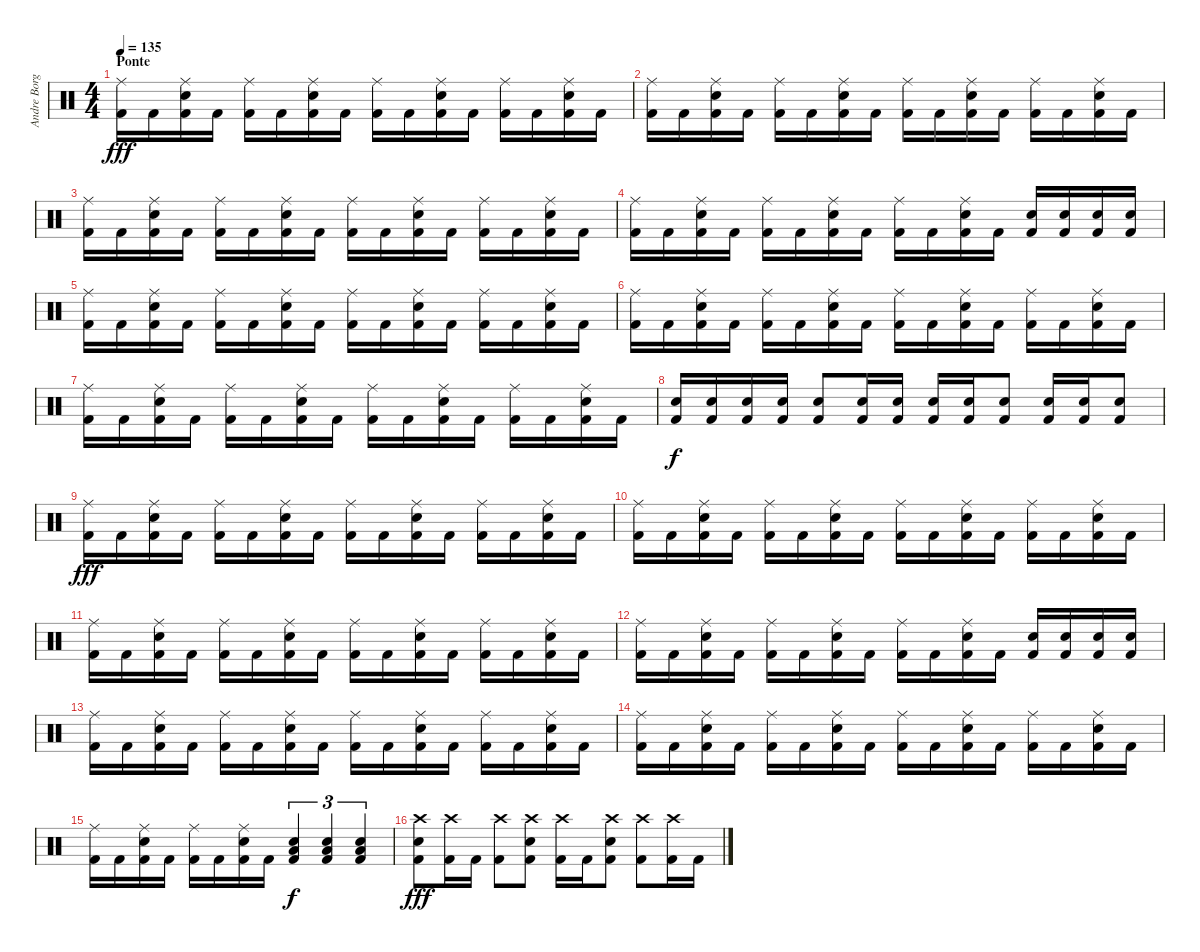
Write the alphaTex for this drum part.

\track ("Andre Borgman" "Andre Borg") {instrument percussion}
\staff {score}
\articulation defaults
\ts (4 4)
\section ("" "Ponte")
\tempo 135
\clef neutral
\ks c
("Ride (middle)" "Kick (hit) 2").16{dy fff} "Kick (hit) 2".16 ("Ride (middle)" "Snare (hit) 2" "Kick (hit) 2").16 "Kick (hit) 2".16 ("Ride (middle)" "Kick (hit) 2").16 "Kick (hit) 2".16 ("Ride (middle)" "Snare (hit) 2" "Kick (hit) 2").16 "Kick (hit) 2".16 ("Ride (middle)" "Kick (hit) 2").16 "Kick (hit) 2".16 ("Ride (middle)" "Snare (hit) 2" "Kick (hit) 2").16 "Kick (hit) 2".16 ("Ride (middle)" "Kick (hit) 2").16 "Kick (hit) 2".16 ("Ride (middle)" "Snare (hit) 2" "Kick (hit) 2").16 "Kick (hit) 2".16 |
("Ride (middle)" "Kick (hit) 2").16 "Kick (hit) 2".16 ("Ride (middle)" "Snare (hit) 2" "Kick (hit) 2").16 "Kick (hit) 2".16 ("Ride (middle)" "Kick (hit) 2").16 "Kick (hit) 2".16 ("Ride (middle)" "Snare (hit) 2" "Kick (hit) 2").16 "Kick (hit) 2".16 ("Ride (middle)" "Kick (hit) 2").16 "Kick (hit) 2".16 ("Ride (middle)" "Snare (hit) 2" "Kick (hit) 2").16 "Kick (hit) 2".16 ("Ride (middle)" "Kick (hit) 2").16 "Kick (hit) 2".16 ("Ride (middle)" "Snare (hit) 2" "Kick (hit) 2").16 "Kick (hit) 2".16 |
("Ride (middle)" "Kick (hit) 2").16 "Kick (hit) 2".16 ("Ride (middle)" "Snare (hit) 2" "Kick (hit) 2").16 "Kick (hit) 2".16 ("Ride (middle)" "Kick (hit) 2").16 "Kick (hit) 2".16 ("Ride (middle)" "Snare (hit) 2" "Kick (hit) 2").16 "Kick (hit) 2".16 ("Ride (middle)" "Kick (hit) 2").16 "Kick (hit) 2".16 ("Ride (middle)" "Snare (hit) 2" "Kick (hit) 2").16 "Kick (hit) 2".16 ("Ride (middle)" "Kick (hit) 2").16 "Kick (hit) 2".16 ("Ride (middle)" "Snare (hit) 2" "Kick (hit) 2").16 "Kick (hit) 2".16 |
("Ride (middle)" "Kick (hit) 2").16 "Kick (hit) 2".16 ("Ride (middle)" "Snare (hit) 2" "Kick (hit) 2").16 "Kick (hit) 2".16 ("Ride (middle)" "Kick (hit) 2").16 "Kick (hit) 2".16 ("Ride (middle)" "Snare (hit) 2" "Kick (hit) 2").16 "Kick (hit) 2".16 ("Ride (middle)" "Kick (hit) 2").16 "Kick (hit) 2".16 ("Ride (middle)" "Snare (hit) 2" "Kick (hit) 2").16 "Kick (hit) 2".16 ("Snare (hit) 2" "Kick (hit) 2").16 ("Snare (hit) 2" "Kick (hit) 2").16 ("Snare (hit) 2" "Kick (hit) 2").16 ("Snare (hit) 2" "Kick (hit) 2").16 |
("Ride (middle)" "Kick (hit) 2").16 "Kick (hit) 2".16 ("Ride (middle)" "Snare (hit) 2" "Kick (hit) 2").16 "Kick (hit) 2".16 ("Ride (middle)" "Kick (hit) 2").16 "Kick (hit) 2".16 ("Ride (middle)" "Snare (hit) 2" "Kick (hit) 2").16 "Kick (hit) 2".16 ("Ride (middle)" "Kick (hit) 2").16 "Kick (hit) 2".16 ("Ride (middle)" "Snare (hit) 2" "Kick (hit) 2").16 "Kick (hit) 2".16 ("Ride (middle)" "Kick (hit) 2").16 "Kick (hit) 2".16 ("Ride (middle)" "Snare (hit) 2" "Kick (hit) 2").16 "Kick (hit) 2".16 |
("Ride (middle)" "Kick (hit) 2").16 "Kick (hit) 2".16 ("Ride (middle)" "Snare (hit) 2" "Kick (hit) 2").16 "Kick (hit) 2".16 ("Ride (middle)" "Kick (hit) 2").16 "Kick (hit) 2".16 ("Ride (middle)" "Snare (hit) 2" "Kick (hit) 2").16 "Kick (hit) 2".16 ("Ride (middle)" "Kick (hit) 2").16 "Kick (hit) 2".16 ("Ride (middle)" "Snare (hit) 2" "Kick (hit) 2").16 "Kick (hit) 2".16 ("Ride (middle)" "Kick (hit) 2").16 "Kick (hit) 2".16 ("Ride (middle)" "Snare (hit) 2" "Kick (hit) 2").16 "Kick (hit) 2".16 |
("Ride (middle)" "Kick (hit) 2").16 "Kick (hit) 2".16 ("Ride (middle)" "Snare (hit) 2" "Kick (hit) 2").16 "Kick (hit) 2".16 ("Ride (middle)" "Kick (hit) 2").16 "Kick (hit) 2".16 ("Ride (middle)" "Snare (hit) 2" "Kick (hit) 2").16 "Kick (hit) 2".16 ("Ride (middle)" "Kick (hit) 2").16 "Kick (hit) 2".16 ("Ride (middle)" "Snare (hit) 2" "Kick (hit) 2").16 "Kick (hit) 2".16 ("Ride (middle)" "Kick (hit) 2").16 "Kick (hit) 2".16 ("Ride (middle)" "Snare (hit) 2" "Kick (hit) 2").16 "Kick (hit) 2".16 |
("Snare (hit) 2" "Kick (hit) 2").16{dy f} ("Snare (hit) 2" "Kick (hit) 2").16 ("Snare (hit) 2" "Kick (hit) 2").16 ("Snare (hit) 2" "Kick (hit) 2").16 ("Snare (hit) 2" "Kick (hit) 2").8 ("Snare (hit) 2" "Kick (hit) 2").16 ("Snare (hit) 2" "Kick (hit) 2").16 ("Snare (hit) 2" "Kick (hit) 2").16 ("Snare (hit) 2" "Kick (hit) 2").16 ("Snare (hit) 2" "Kick (hit) 2").8 ("Snare (hit) 2" "Kick (hit) 2").16 ("Snare (hit) 2" "Kick (hit) 2").16 ("Snare (hit) 2" "Kick (hit) 2").8 |
("Ride (middle)" "Kick (hit) 2").16{dy fff} "Kick (hit) 2".16 ("Ride (middle)" "Snare (hit) 2" "Kick (hit) 2").16 "Kick (hit) 2".16 ("Ride (middle)" "Kick (hit) 2").16 "Kick (hit) 2".16 ("Ride (middle)" "Snare (hit) 2" "Kick (hit) 2").16 "Kick (hit) 2".16 ("Ride (middle)" "Kick (hit) 2").16 "Kick (hit) 2".16 ("Ride (middle)" "Snare (hit) 2" "Kick (hit) 2").16 "Kick (hit) 2".16 ("Ride (middle)" "Kick (hit) 2").16 "Kick (hit) 2".16 ("Ride (middle)" "Snare (hit) 2" "Kick (hit) 2").16 "Kick (hit) 2".16 |
("Ride (middle)" "Kick (hit) 2").16 "Kick (hit) 2".16 ("Ride (middle)" "Snare (hit) 2" "Kick (hit) 2").16 "Kick (hit) 2".16 ("Ride (middle)" "Kick (hit) 2").16 "Kick (hit) 2".16 ("Ride (middle)" "Snare (hit) 2" "Kick (hit) 2").16 "Kick (hit) 2".16 ("Ride (middle)" "Kick (hit) 2").16 "Kick (hit) 2".16 ("Ride (middle)" "Snare (hit) 2" "Kick (hit) 2").16 "Kick (hit) 2".16 ("Ride (middle)" "Kick (hit) 2").16 "Kick (hit) 2".16 ("Ride (middle)" "Snare (hit) 2" "Kick (hit) 2").16 "Kick (hit) 2".16 |
("Ride (middle)" "Kick (hit) 2").16 "Kick (hit) 2".16 ("Ride (middle)" "Snare (hit) 2" "Kick (hit) 2").16 "Kick (hit) 2".16 ("Ride (middle)" "Kick (hit) 2").16 "Kick (hit) 2".16 ("Ride (middle)" "Snare (hit) 2" "Kick (hit) 2").16 "Kick (hit) 2".16 ("Ride (middle)" "Kick (hit) 2").16 "Kick (hit) 2".16 ("Ride (middle)" "Snare (hit) 2" "Kick (hit) 2").16 "Kick (hit) 2".16 ("Ride (middle)" "Kick (hit) 2").16 "Kick (hit) 2".16 ("Ride (middle)" "Snare (hit) 2" "Kick (hit) 2").16 "Kick (hit) 2".16 |
("Ride (middle)" "Kick (hit) 2").16 "Kick (hit) 2".16 ("Ride (middle)" "Snare (hit) 2" "Kick (hit) 2").16 "Kick (hit) 2".16 ("Ride (middle)" "Kick (hit) 2").16 "Kick (hit) 2".16 ("Ride (middle)" "Snare (hit) 2" "Kick (hit) 2").16 "Kick (hit) 2".16 ("Ride (middle)" "Kick (hit) 2").16 "Kick (hit) 2".16 ("Ride (middle)" "Snare (hit) 2" "Kick (hit) 2").16 "Kick (hit) 2".16 ("Snare (hit) 2" "Kick (hit) 2").16 ("Snare (hit) 2" "Kick (hit) 2").16 ("Snare (hit) 2" "Kick (hit) 2").16 ("Snare (hit) 2" "Kick (hit) 2").16 |
("Ride (middle)" "Kick (hit) 2").16 "Kick (hit) 2".16 ("Ride (middle)" "Snare (hit) 2" "Kick (hit) 2").16 "Kick (hit) 2".16 ("Ride (middle)" "Kick (hit) 2").16 "Kick (hit) 2".16 ("Ride (middle)" "Snare (hit) 2" "Kick (hit) 2").16 "Kick (hit) 2".16 ("Ride (middle)" "Kick (hit) 2").16 "Kick (hit) 2".16 ("Ride (middle)" "Snare (hit) 2" "Kick (hit) 2").16 "Kick (hit) 2".16 ("Ride (middle)" "Kick (hit) 2").16 "Kick (hit) 2".16 ("Ride (middle)" "Snare (hit) 2" "Kick (hit) 2").16 "Kick (hit) 2".16 |
("Ride (middle)" "Kick (hit) 2").16 "Kick (hit) 2".16 ("Ride (middle)" "Snare (hit) 2" "Kick (hit) 2").16 "Kick (hit) 2".16 ("Ride (middle)" "Kick (hit) 2").16 "Kick (hit) 2".16 ("Ride (middle)" "Snare (hit) 2" "Kick (hit) 2").16 "Kick (hit) 2".16 ("Ride (middle)" "Kick (hit) 2").16 "Kick (hit) 2".16 ("Ride (middle)" "Snare (hit) 2" "Kick (hit) 2").16 "Kick (hit) 2".16 ("Ride (middle)" "Kick (hit) 2").16 "Kick (hit) 2".16 ("Ride (middle)" "Snare (hit) 2" "Kick (hit) 2").16 "Kick (hit) 2".16 |
("Ride (middle)" "Kick (hit) 2").16 "Kick (hit) 2".16 ("Ride (middle)" "Snare (hit) 2" "Kick (hit) 2").16 "Kick (hit) 2".16 ("Ride (middle)" "Kick (hit) 2").16 "Kick (hit) 2".16 ("Ride (middle)" "Snare (hit) 2" "Kick (hit) 2").16 "Kick (hit) 2".16 ("Snare (hit) 2" "Low Tom (hit)" "Kick (hit) 2").4{tu (3 2) dy f} ("Snare (hit) 2" "Low Tom (hit)" "Kick (hit) 2").4{tu (3 2)} ("Snare (hit) 2" "Low Tom (hit)" "Kick (hit) 2").4{tu (3 2)} |
("Crash high (hit)" "Snare (hit) 2" "Kick (hit) 2").8{dy fff} ("Crash high (hit)" "Kick (hit) 2").16 "Kick (hit) 2".16 ("Crash high (hit)" "Kick (hit) 2").8 ("Crash high (hit)" "Snare (hit) 2" "Kick (hit) 2").8 ("Crash high (hit)" "Kick (hit) 2").16 "Kick (hit) 2".16 ("Crash high (hit)" "Snare (hit) 2" "Kick (hit) 2").8 ("Crash high (hit)" "Kick (hit) 2").8 ("Crash high (hit)" "Kick (hit) 2").16 "Kick (hit) 2".16
